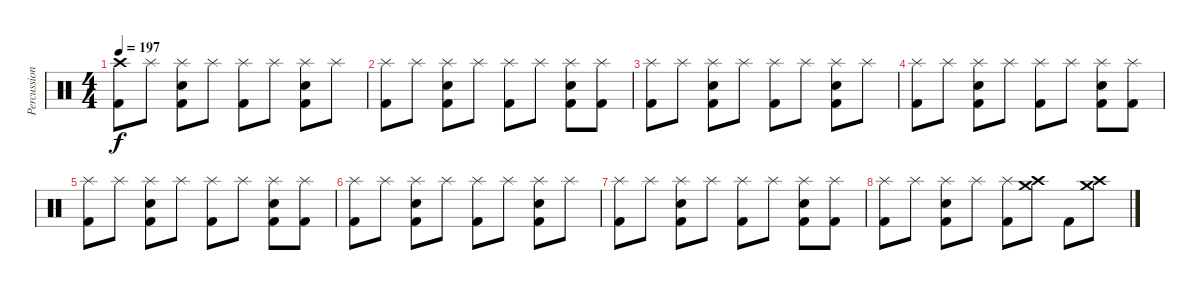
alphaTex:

\track ("Percussion" "Percussion") {instrument percussion}
\staff {score}
\articulation defaults
\ts (4 4)
\tempo 197
\clef neutral
\ks c
("Crash high (hit)" "Kick (hit) 2").8{dy f} "Splash (hit)".8 ("Snare (hit) 2" "Splash (hit)" "Kick (hit) 2").8 "Splash (hit)".8 ("Splash (hit)" "Kick (hit) 2").8 "Splash (hit)".8 ("Snare (hit) 2" "Splash (hit)" "Kick (hit) 2").8 "Splash (hit)".8 |
("Splash (hit)" "Kick (hit) 2").8 "Splash (hit)".8 ("Snare (hit) 2" "Splash (hit)" "Kick (hit) 2").8 "Splash (hit)".8 ("Splash (hit)" "Kick (hit) 2").8 "Splash (hit)".8 ("Snare (hit) 2" "Splash (hit)" "Kick (hit) 2").8 ("Splash (hit)" "Kick (hit) 2").8 |
("Splash (hit)" "Kick (hit) 2").8 "Splash (hit)".8 ("Snare (hit) 2" "Splash (hit)" "Kick (hit) 2").8 "Splash (hit)".8 ("Splash (hit)" "Kick (hit) 2").8 "Splash (hit)".8 ("Snare (hit) 2" "Splash (hit)" "Kick (hit) 2").8 "Splash (hit)".8 |
("Splash (hit)" "Kick (hit) 2").8 "Splash (hit)".8 ("Snare (hit) 2" "Splash (hit)" "Kick (hit) 2").8 "Splash (hit)".8 ("Splash (hit)" "Kick (hit) 2").8 "Splash (hit)".8 ("Snare (hit) 2" "Splash (hit)" "Kick (hit) 2").8 ("Splash (hit)" "Kick (hit) 2").8 |
("Splash (hit)" "Kick (hit) 2").8 "Splash (hit)".8 ("Snare (hit) 2" "Splash (hit)" "Kick (hit) 2").8 "Splash (hit)".8 ("Splash (hit)" "Kick (hit) 2").8 "Splash (hit)".8 ("Snare (hit) 2" "Splash (hit)" "Kick (hit) 2").8 ("Splash (hit)" "Kick (hit) 2").8 |
("Splash (hit)" "Kick (hit) 2").8 "Splash (hit)".8 ("Snare (hit) 2" "Splash (hit)" "Kick (hit) 2").8 "Splash (hit)".8 ("Splash (hit)" "Kick (hit) 2").8 "Splash (hit)".8 ("Snare (hit) 2" "Splash (hit)" "Kick (hit) 2").8 "Splash (hit)".8 |
("Splash (hit)" "Kick (hit) 2").8 "Splash (hit)".8 ("Snare (hit) 2" "Splash (hit)" "Kick (hit) 2").8 "Splash (hit)".8 ("Splash (hit)" "Kick (hit) 2").8 "Splash (hit)".8 ("Snare (hit) 2" "Splash (hit)" "Kick (hit) 2").8 ("Splash (hit)" "Kick (hit) 2").8 |
("Splash (hit)" "Kick (hit) 2").8 "Splash (hit)".8 ("Snare (hit) 2" "Splash (hit)" "Kick (hit) 2").8 "Splash (hit)".8 ("Splash (hit)" "Kick (hit) 2").8 ("Crash medium (hit)" "Crash high (hit)").8 "Kick (hit) 2".8 ("Crash medium (hit)" "Crash high (hit)").8
